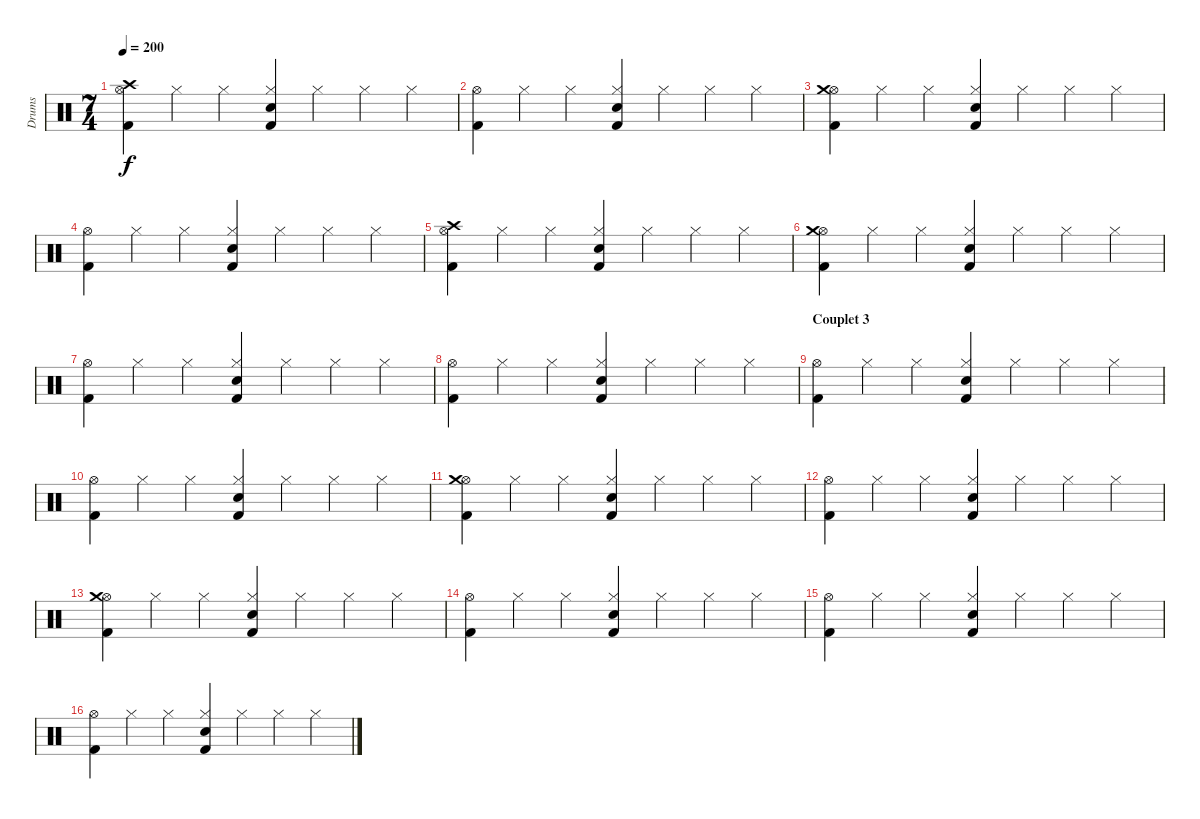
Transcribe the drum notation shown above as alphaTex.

\track ("Drums" "Drums") {instrument percussion}
\staff {score}
\articulation defaults
\ts (7 4)
\tempo 200
\clef neutral
\ks c
("Hi-Hat (open)" "Crash high (hit)" "Kick (hit) 2").4{dy f} "Hi-Hat (closed)".4 "Hi-Hat (closed)".4 ("Hi-Hat (closed)" "Snare (hit) 2" "Kick (hit) 2").4 "Hi-Hat (closed)".4 "Hi-Hat (closed)".4 "Hi-Hat (closed)".4 |
("Hi-Hat (open)" "Kick (hit) 2").4 "Hi-Hat (closed)".4 "Hi-Hat (closed)".4 ("Hi-Hat (closed)" "Snare (hit) 2" "Kick (hit) 2").4 "Hi-Hat (closed)".4 "Hi-Hat (closed)".4 "Hi-Hat (closed)".4 |
("Hi-Hat (open)" "Crash medium (hit)" "Kick (hit) 2").4 "Hi-Hat (closed)".4 "Hi-Hat (closed)".4 ("Hi-Hat (closed)" "Snare (hit) 2" "Kick (hit) 2").4 "Hi-Hat (closed)".4 "Hi-Hat (closed)".4 "Hi-Hat (closed)".4 |
("Hi-Hat (open)" "Kick (hit) 2").4 "Hi-Hat (closed)".4 "Hi-Hat (closed)".4 ("Hi-Hat (closed)" "Snare (hit) 2" "Kick (hit) 2").4 "Hi-Hat (closed)".4 "Hi-Hat (closed)".4 "Hi-Hat (closed)".4 |
("Hi-Hat (open)" "Crash high (hit)" "Kick (hit) 2").4 "Hi-Hat (closed)".4 "Hi-Hat (closed)".4 ("Hi-Hat (closed)" "Snare (hit) 2" "Kick (hit) 2").4 "Hi-Hat (closed)".4 "Hi-Hat (closed)".4 "Hi-Hat (closed)".4 |
("Hi-Hat (open)" "Crash medium (hit)" "Kick (hit) 2").4 "Hi-Hat (closed)".4 "Hi-Hat (closed)".4 ("Hi-Hat (closed)" "Snare (hit) 2" "Kick (hit) 2").4 "Hi-Hat (closed)".4 "Hi-Hat (closed)".4 "Hi-Hat (closed)".4 |
("Hi-Hat (open)" "Kick (hit) 2").4 "Hi-Hat (closed)".4 "Hi-Hat (closed)".4 ("Hi-Hat (closed)" "Snare (hit) 2" "Kick (hit) 2").4 "Hi-Hat (closed)".4 "Hi-Hat (closed)".4 "Hi-Hat (closed)".4 |
("Hi-Hat (open)" "Kick (hit) 2").4 "Hi-Hat (closed)".4 "Hi-Hat (closed)".4 ("Hi-Hat (closed)" "Snare (hit) 2" "Kick (hit) 2").4 "Hi-Hat (closed)".4 "Hi-Hat (closed)".4 "Hi-Hat (closed)".4 |
\section ("" "Couplet 3")
("Hi-Hat (open)" "Kick (hit) 2").4 "Hi-Hat (closed)".4 "Hi-Hat (closed)".4 ("Hi-Hat (closed)" "Snare (hit) 2" "Kick (hit) 2").4 "Hi-Hat (closed)".4 "Hi-Hat (closed)".4 "Hi-Hat (closed)".4 |
("Hi-Hat (open)" "Kick (hit) 2").4 "Hi-Hat (closed)".4 "Hi-Hat (closed)".4 ("Hi-Hat (closed)" "Snare (hit) 2" "Kick (hit) 2").4 "Hi-Hat (closed)".4 "Hi-Hat (closed)".4 "Hi-Hat (closed)".4 |
("Hi-Hat (open)" "Crash medium (hit)" "Kick (hit) 2").4 "Hi-Hat (closed)".4 "Hi-Hat (closed)".4 ("Hi-Hat (closed)" "Snare (hit) 2" "Kick (hit) 2").4 "Hi-Hat (closed)".4 "Hi-Hat (closed)".4 "Hi-Hat (closed)".4 |
("Hi-Hat (open)" "Kick (hit) 2").4 "Hi-Hat (closed)".4 "Hi-Hat (closed)".4 ("Hi-Hat (closed)" "Snare (hit) 2" "Kick (hit) 2").4 "Hi-Hat (closed)".4 "Hi-Hat (closed)".4 "Hi-Hat (closed)".4 |
("Hi-Hat (open)" "Crash medium (hit)" "Kick (hit) 2").4 "Hi-Hat (closed)".4 "Hi-Hat (closed)".4 ("Hi-Hat (closed)" "Snare (hit) 2" "Kick (hit) 2").4 "Hi-Hat (closed)".4 "Hi-Hat (closed)".4 "Hi-Hat (closed)".4 |
("Hi-Hat (open)" "Kick (hit) 2").4 "Hi-Hat (closed)".4 "Hi-Hat (closed)".4 ("Hi-Hat (closed)" "Snare (hit) 2" "Kick (hit) 2").4 "Hi-Hat (closed)".4 "Hi-Hat (closed)".4 "Hi-Hat (closed)".4 |
("Hi-Hat (open)" "Kick (hit) 2").4 "Hi-Hat (closed)".4 "Hi-Hat (closed)".4 ("Hi-Hat (closed)" "Snare (hit) 2" "Kick (hit) 2").4 "Hi-Hat (closed)".4 "Hi-Hat (closed)".4 "Hi-Hat (closed)".4 |
("Hi-Hat (open)" "Kick (hit) 2").4 "Hi-Hat (closed)".4 "Hi-Hat (closed)".4 ("Hi-Hat (closed)" "Snare (hit) 2" "Kick (hit) 2").4 "Hi-Hat (closed)".4 "Hi-Hat (closed)".4 "Hi-Hat (closed)".4
